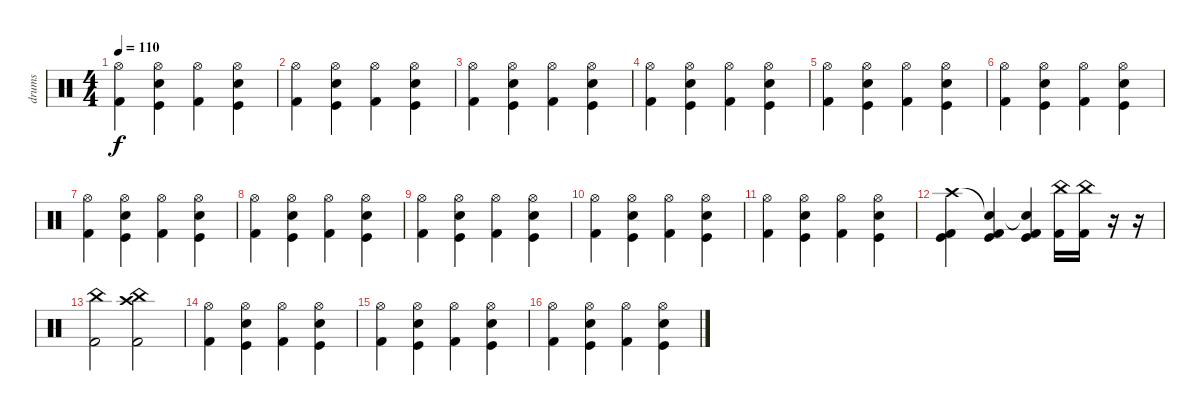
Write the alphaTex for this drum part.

\track ("drums" "drums") {instrument percussion}
\staff {score}
\articulation defaults
\ts (4 4)
\tempo 110
\clef neutral
\ks c
("Hi-Hat (open)" "Kick (hit) 2").4{dy f} ("Hi-Hat (open)" "Snare (hit) 2" "Kick (hit)").4 ("Hi-Hat (open)" "Kick (hit) 2").4 ("Hi-Hat (open)" "Snare (hit) 2" "Kick (hit)").4 |
("Hi-Hat (open)" "Kick (hit) 2").4 ("Hi-Hat (open)" "Snare (hit) 2" "Kick (hit)").4 ("Hi-Hat (open)" "Kick (hit) 2").4 ("Hi-Hat (open)" "Snare (hit) 2" "Kick (hit)").4 |
("Hi-Hat (open)" "Kick (hit) 2").4 ("Hi-Hat (open)" "Snare (hit) 2" "Kick (hit)").4 ("Hi-Hat (open)" "Kick (hit) 2").4 ("Hi-Hat (open)" "Snare (hit) 2" "Kick (hit)").4 |
("Hi-Hat (open)" "Kick (hit) 2").4 ("Hi-Hat (open)" "Snare (hit) 2" "Kick (hit)").4 ("Hi-Hat (open)" "Kick (hit) 2").4 ("Hi-Hat (open)" "Snare (hit) 2" "Kick (hit)").4 |
("Hi-Hat (open)" "Kick (hit) 2").4 ("Hi-Hat (open)" "Snare (hit) 2" "Kick (hit)").4 ("Hi-Hat (open)" "Kick (hit) 2").4 ("Hi-Hat (open)" "Snare (hit) 2" "Kick (hit)").4 |
("Hi-Hat (open)" "Kick (hit) 2").4 ("Hi-Hat (open)" "Snare (hit) 2" "Kick (hit)").4 ("Hi-Hat (open)" "Kick (hit) 2").4 ("Hi-Hat (open)" "Snare (hit) 2" "Kick (hit)").4 |
("Hi-Hat (open)" "Kick (hit) 2").4 ("Hi-Hat (open)" "Snare (hit) 2" "Kick (hit)").4 ("Hi-Hat (open)" "Kick (hit) 2").4 ("Hi-Hat (open)" "Snare (hit) 2" "Kick (hit)").4 |
("Hi-Hat (open)" "Kick (hit) 2").4 ("Hi-Hat (open)" "Snare (hit) 2" "Kick (hit)").4 ("Hi-Hat (open)" "Kick (hit) 2").4 ("Hi-Hat (open)" "Snare (hit) 2" "Kick (hit)").4 |
("Hi-Hat (open)" "Kick (hit) 2").4 ("Hi-Hat (open)" "Snare (hit) 2" "Kick (hit)").4 ("Hi-Hat (open)" "Kick (hit) 2").4 ("Hi-Hat (open)" "Snare (hit) 2" "Kick (hit)").4 |
("Hi-Hat (open)" "Kick (hit) 2").4 ("Hi-Hat (open)" "Snare (hit) 2" "Kick (hit)").4 ("Hi-Hat (open)" "Kick (hit) 2").4 ("Hi-Hat (open)" "Snare (hit) 2" "Kick (hit)").4 |
("Hi-Hat (open)" "Kick (hit) 2").4 ("Hi-Hat (open)" "Snare (hit) 2" "Kick (hit)").4 ("Hi-Hat (open)" "Kick (hit) 2").4 ("Hi-Hat (open)" "Snare (hit) 2" "Kick (hit)").4 |
("Crash high (hit)" "Kick (hit) 2" "Kick (hit)").4 ("Snare (hit)"{t} "Kick (hit) 2" "Kick (hit)").4 ("Snare (hit)"{t} "Kick (hit) 2" "Kick (hit)").4 ("China (hit)" "Kick (hit) 2").16 ("China (hit)" "Kick (hit) 2").16 r.16 r.16 |
("China (hit)" "Kick (hit) 2").2 ("Crash high (hit)" "China (hit)" "Kick (hit) 2").2 |
("Hi-Hat (open)" "Kick (hit) 2").4 ("Hi-Hat (open)" "Snare (hit) 2" "Kick (hit)").4 ("Hi-Hat (open)" "Kick (hit) 2").4 ("Hi-Hat (open)" "Snare (hit) 2" "Kick (hit)").4 |
("Hi-Hat (open)" "Kick (hit) 2").4 ("Hi-Hat (open)" "Snare (hit) 2" "Kick (hit)").4 ("Hi-Hat (open)" "Kick (hit) 2").4 ("Hi-Hat (open)" "Snare (hit) 2" "Kick (hit)").4 |
("Hi-Hat (open)" "Kick (hit) 2").4 ("Hi-Hat (open)" "Snare (hit) 2" "Kick (hit)").4 ("Hi-Hat (open)" "Kick (hit) 2").4 ("Hi-Hat (open)" "Snare (hit) 2" "Kick (hit)").4
